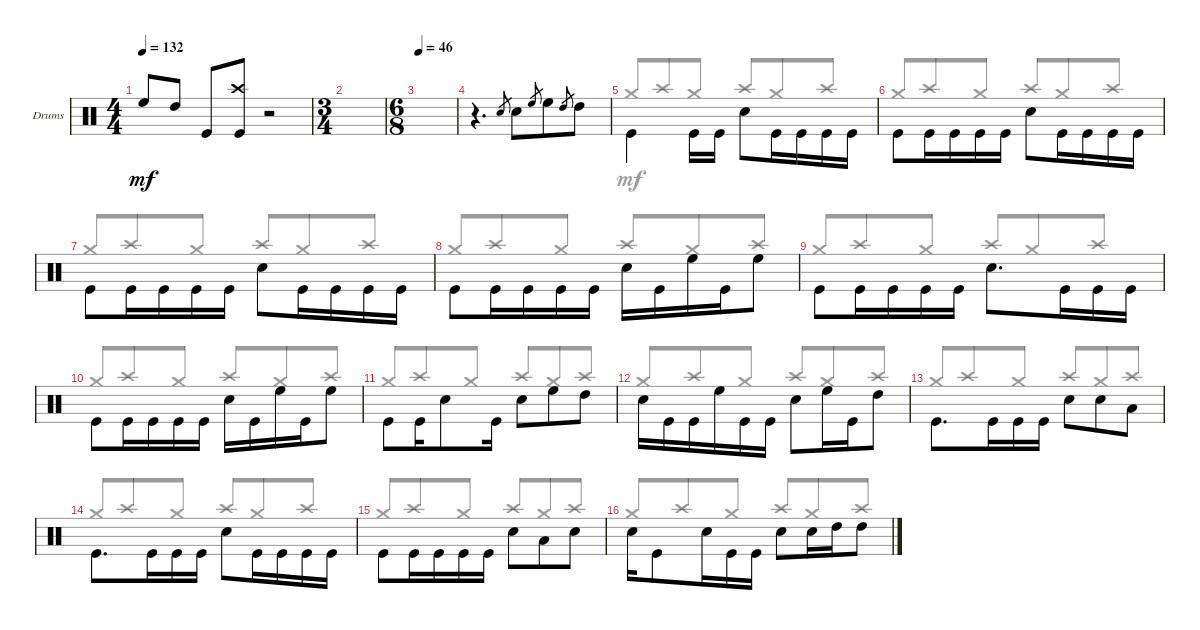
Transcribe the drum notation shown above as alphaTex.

\defaultSystemsLayout 4
\bracketExtendMode groupsimilarinstruments
\firstSystemTrackNameOrientation horizontal
\otherSystemsTrackNameOrientation horizontal
\track ("PETER CRISS" "Drums") {solo instrument percussion}
\staff {score}
\articulation defaults
\voice
\ts (4 4)
\tempo 132
\clef neutral
\ks aminor "High Floor Tom (hit)".8{dy mf} "High Tom (hit)".8 "Kick (hit)".8{beam invert}
("Kick (hit)" "Crash high (hit)").8 r.2 |
\ts (3 4)
|
\ts (6 8)
\tempo 46
|
r.4{d} "Snare (hit) 2".8{gr} "Snare (hit) 2".8 "High Floor Tom (hit)".8{gr} "High Floor Tom (hit)".8 "High Tom (hit)".8{gr} "High Tom (hit)".8 |
"Kick (hit)".4{beam invert} "Kick (hit)".16{beam invert} "Kick (hit)".16 "Snare (hit) 2".8{beam invert} "Kick (hit)".16 "Kick (hit)".16 "Kick (hit)".16 "Kick (hit)".16 |
"Kick (hit)".8{beam invert} "Kick (hit)".16 "Kick (hit)".16 "Kick (hit)".16 "Kick (hit)".16 "Snare (hit) 2".8{beam invert} "Kick (hit)".16 "Kick (hit)".16 "Kick (hit)".16 "Kick (hit)".16 |
"Kick (hit)".8{beam invert} "Kick (hit)".16 "Kick (hit)".16 "Kick (hit)".16 "Kick (hit)".16 "Snare (hit) 2".8{beam invert} "Kick (hit)".16 "Kick (hit)".16 "Kick (hit)".16 "Kick (hit)".16 |
"Kick (hit)".8{beam invert} "Kick (hit)".16 "Kick (hit)".16 "Kick (hit)".16 "Kick (hit)".16 "Snare (hit) 2".16{beam invert} "Kick (hit)".16 "High Floor Tom (hit)".16 "Kick (hit)".16 "High Floor Tom (hit)".8 |
"Kick (hit)".8{beam invert} "Kick (hit)".16 "Kick (hit)".16 "Kick (hit)".16 "Kick (hit)".16 "Snare (hit) 2".8{d beam invert} "Kick (hit)".16 "Kick (hit)".16 "Kick (hit)".16 |
"Kick (hit)".8{beam invert} "Kick (hit)".16 "Kick (hit)".16 "Kick (hit)".16 "Kick (hit)".16 "Snare (hit) 2".16{beam invert} "Kick (hit)".16 "High Floor Tom (hit)".16 "Kick (hit)".16 "High Floor Tom (hit)".8 |
"Kick (hit)".8{beam invert} "Kick (hit)".16 "Snare (hit) 2".8 "Kick (hit)".16 "Snare (hit) 2".8{beam invert} "High Floor Tom (hit)".8 "High Tom (hit)".8 |
"Snare (hit) 2".16{beam invert} "Kick (hit)".16 "Kick (hit)".16 "High Floor Tom (hit)".16 "Kick (hit)".16 "Kick (hit)".16 "Snare (hit) 2".8{beam invert} "High Floor Tom (hit)".16 "Kick (hit)".16 "High Tom (hit)".8 |
"Kick (hit)".8{d beam invert} "Kick (hit)".16 "Kick (hit)".16 "Kick (hit)".16 "Snare (hit) 2".8{beam invert} "Snare (hit) 2".8 "Low Tom (hit)".8 |
"Kick (hit)".8{d beam invert} "Kick (hit)".16 "Kick (hit)".16 "Kick (hit)".16 "Snare (hit) 2".8{beam invert} "Kick (hit)".16 "Kick (hit)".16 "Kick (hit)".16 "Kick (hit)".16 |
"Kick (hit)".8{beam invert} "Kick (hit)".16 "Kick (hit)".16 "Kick (hit)".16 "Kick (hit)".16 "Snare (hit) 2".8{beam invert} "Low Tom (hit)".8 "Snare (hit) 2".8 |
"Snare (hit) 2".16{beam invert} "Kick (hit)".8 "Snare (hit) 2".16 "Kick (hit)".16 "Kick (hit)".16 "Snare (hit) 2".8{beam invert} "Snare (hit) 2".16 "High Tom (hit)".16 "High Tom (hit)".8
\voice
\clef neutral
\ottava regular
\simile none
\ks aminor
|
|
|
|
"Crash medium (hit)".8{beam invert} "Crash high (hit)".8 "Crash medium (hit)".8 "Crash high (hit)".8{beam invert} "Crash medium (hit)".8 "Crash high (hit)".8 |
"Crash medium (hit)".8{beam invert} "Crash high (hit)".8 "Crash medium (hit)".8 "Crash high (hit)".8{beam invert} "Crash medium (hit)".8 "Crash high (hit)".8 |
"Crash medium (hit)".8{beam invert} "Crash high (hit)".8 "Crash medium (hit)".8 "Crash high (hit)".8{beam invert} "Crash medium (hit)".8 "Crash high (hit)".8 |
"Crash medium (hit)".8{beam invert} "Crash high (hit)".8 "Crash medium (hit)".8 "Crash high (hit)".8{beam invert} "Crash medium (hit)".8 "Crash high (hit)".8 |
"Crash medium (hit)".8{beam invert} "Crash high (hit)".8 "Crash medium (hit)".8 "Crash high (hit)".8{beam invert} "Crash medium (hit)".8 "Crash high (hit)".8 |
"Crash medium (hit)".8{beam invert} "Crash high (hit)".8 "Crash medium (hit)".8 "Crash high (hit)".8{beam invert} "Crash medium (hit)".8 "Crash high (hit)".8 |
"Crash medium (hit)".8{beam invert} "Crash high (hit)".8 "Crash medium (hit)".8 "Crash high (hit)".8{beam invert} "Crash medium (hit)".8 "Crash high (hit)".8 |
"Crash medium (hit)".8{beam invert} "Crash high (hit)".8 "Crash medium (hit)".8 "Crash high (hit)".8{beam invert} "Crash medium (hit)".8 "Crash high (hit)".8 |
"Crash medium (hit)".8{beam invert} "Crash high (hit)".8 "Crash medium (hit)".8 "Crash high (hit)".8{beam invert} "Crash medium (hit)".8 "Crash high (hit)".8 |
"Crash medium (hit)".8{beam invert} "Crash high (hit)".8 "Crash medium (hit)".8 "Crash high (hit)".8{beam invert} "Crash medium (hit)".8 "Crash high (hit)".8 |
"Crash medium (hit)".8{beam invert} "Crash high (hit)".8 "Crash medium (hit)".8 "Crash high (hit)".8{beam invert} "Crash medium (hit)".8 "Crash high (hit)".8 |
"Crash medium (hit)".8{beam invert} "Crash high (hit)".8 "Crash medium (hit)".8 "Crash high (hit)".8{beam invert} "Crash medium (hit)".8 "Crash high (hit)".8
